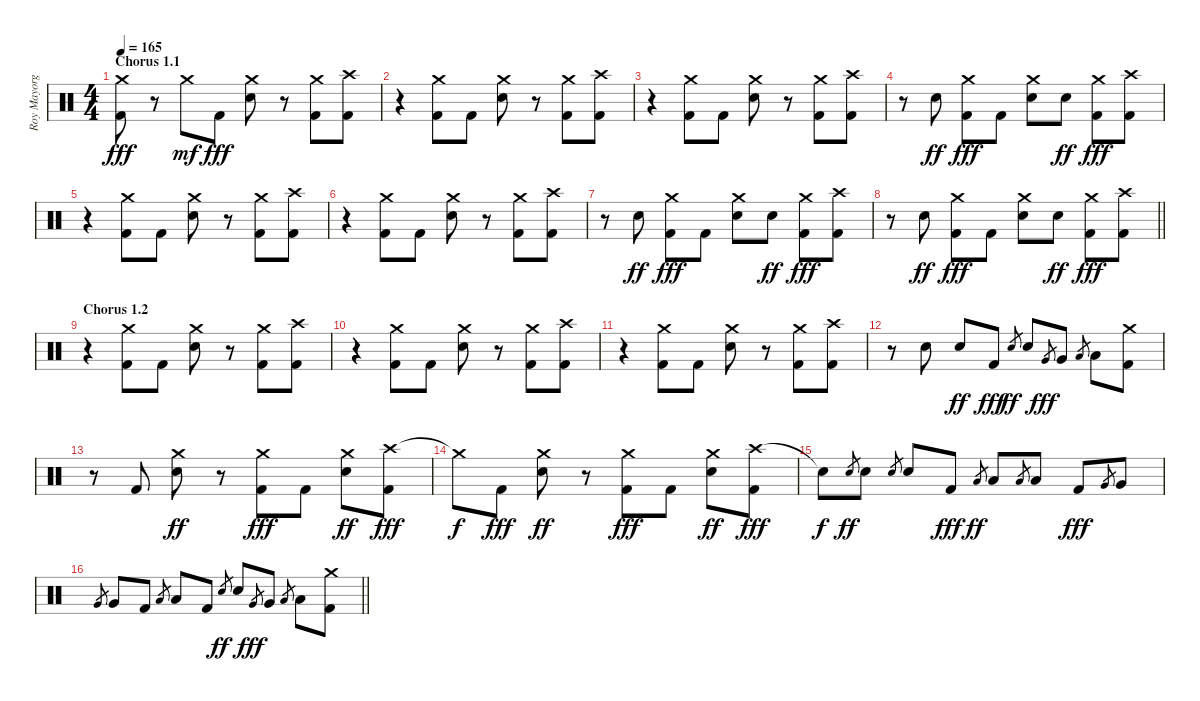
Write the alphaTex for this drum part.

\track ("Roy Mayorga" "Roy Mayorg") {instrument percussion}
\staff {score}
\articulation defaults
\ts (4 4)
\section ("" "Chorus 1.1")
\tempo 165
\clef neutral
\ks c
("Crash medium (hit)" "Kick (hit) 2").8{dy fff} r.8 "Crash medium (hit)".8{dy mf} "Kick (hit) 2".8{dy fff} ("Crash medium (hit)" "Electric Snare (hit)").8 r.8 ("Crash medium (hit)" "Kick (hit) 2").8 ("Crash high (hit)" "Kick (hit) 2").8 |
r.4 ("Crash medium (hit)" "Kick (hit) 2").8 "Kick (hit) 2".8 ("Crash medium (hit)" "Electric Snare (hit)").8 r.8 ("Crash medium (hit)" "Kick (hit) 2").8 ("Crash high (hit)" "Kick (hit) 2").8 |
r.4 ("Crash medium (hit)" "Kick (hit) 2").8 "Kick (hit) 2".8 ("Crash medium (hit)" "Electric Snare (hit)").8 r.8 ("Crash medium (hit)" "Kick (hit) 2").8 ("Crash high (hit)" "Kick (hit) 2").8 |
r.8 "Electric Snare (hit)".8{dy ff} ("Crash medium (hit)" "Kick (hit) 2").8{dy fff} "Kick (hit) 2".8 ("Crash medium (hit)" "Electric Snare (hit)").8 "Electric Snare (hit)".8{dy ff} ("Crash medium (hit)" "Kick (hit) 2").8{dy fff} ("Crash high (hit)" "Kick (hit) 2").8 |
r.4 ("Crash medium (hit)" "Kick (hit) 2").8 "Kick (hit) 2".8 ("Crash medium (hit)" "Electric Snare (hit)").8 r.8 ("Crash medium (hit)" "Kick (hit) 2").8 ("Crash high (hit)" "Kick (hit) 2").8 |
r.4 ("Crash medium (hit)" "Kick (hit) 2").8 "Kick (hit) 2".8 ("Crash medium (hit)" "Electric Snare (hit)").8 r.8 ("Crash medium (hit)" "Kick (hit) 2").8 ("Crash high (hit)" "Kick (hit) 2").8 |
r.8 "Electric Snare (hit)".8{dy ff} ("Crash medium (hit)" "Kick (hit) 2").8{dy fff} "Kick (hit) 2".8 ("Crash medium (hit)" "Electric Snare (hit)").8 "Electric Snare (hit)".8{dy ff} ("Crash medium (hit)" "Kick (hit) 2").8{dy fff} ("Crash high (hit)" "Kick (hit) 2").8 |
\barLineRight lightlight
r.8 "Electric Snare (hit)".8{dy ff} ("Crash medium (hit)" "Kick (hit) 2").8{dy fff} "Kick (hit) 2".8 ("Crash medium (hit)" "Electric Snare (hit)").8 "Electric Snare (hit)".8{dy ff} ("Crash medium (hit)" "Kick (hit) 2").8{dy fff} ("Crash high (hit)" "Kick (hit) 2").8 |
\section ("" "Chorus 1.2")
r.4 ("Crash medium (hit)" "Kick (hit) 2").8 "Kick (hit) 2".8 ("Crash medium (hit)" "Electric Snare (hit)").8 r.8 ("Crash medium (hit)" "Kick (hit) 2").8 ("Crash high (hit)" "Kick (hit) 2").8 |
r.4 ("Crash medium (hit)" "Kick (hit) 2").8 "Kick (hit) 2".8 ("Crash medium (hit)" "Electric Snare (hit)").8 r.8 ("Crash medium (hit)" "Kick (hit) 2").8 ("Crash high (hit)" "Kick (hit) 2").8 |
r.4 ("Crash medium (hit)" "Kick (hit) 2").8 "Kick (hit) 2".8 ("Crash medium (hit)" "Electric Snare (hit)").8 r.8 ("Crash medium (hit)" "Kick (hit) 2").8 ("Crash high (hit)" "Kick (hit) 2").8 |
r.8 "Electric Snare (hit)".8 "Electric Snare (hit)".8{dy ff} "Kick (hit) 2".8{dy fff} "Electric Snare (hit)".8{gr dy ff} "Electric Snare (hit)".8 "Very Low Tom (hit)".8{gr dy fff} "Very Low Tom (hit)".8 "Low Floor Tom (hit)".8{gr} "Low Floor Tom (hit)".8 ("Crash medium (hit)" "Kick (hit) 2").8 |
r.8 "Kick (hit) 2".8 ("Crash medium (hit)" "Electric Snare (hit)").8{dy ff} r.8 ("Crash medium (hit)" "Kick (hit) 2").8{dy fff} "Kick (hit) 2".8 ("Crash medium (hit)" "Electric Snare (hit)").8{dy ff} ("Crash high (hit)" "Kick (hit) 2").8{dy fff} |
"Crash medium (hit)"{t}.8{dy f} "Kick (hit) 2".8{dy fff} ("Crash medium (hit)" "Electric Snare (hit)").8{dy ff} r.8 ("Crash medium (hit)" "Kick (hit) 2").8{dy fff} "Kick (hit) 2".8 ("Crash medium (hit)" "Electric Snare (hit)").8{dy ff} ("Crash high (hit)" "Kick (hit) 2").8{dy fff} |
"Snare (hit)"{t}.8{dy f} "Electric Snare (hit)".8{gr dy ff} "Electric Snare (hit)".8 "Electric Snare (hit)".8{gr} "Electric Snare (hit)".8 "Kick (hit) 2".8{dy fff} "Low Tom (hit)".8{gr dy ff} "Low Tom (hit)".8 "Low Tom (hit)".8{gr} "Low Tom (hit)".8 "Kick (hit) 2".8{dy fff} "Very Low Tom (hit)".8{gr} "Very Low Tom (hit)".8 |
\barLineRight lightlight "Very Low Tom (hit)".8{gr} "Very Low Tom (hit)".8 "Kick (hit) 2".8 "Low Floor Tom (hit)".8{gr} "Low Floor Tom (hit)".8 "Kick (hit) 2".8 "Electric Snare (hit)".8{gr dy ff} "Electric Snare (hit)".8 "Very Low Tom (hit)".8{gr dy fff} "Very Low Tom (hit)".8 "Low Floor Tom (hit)".8{gr} "Low Floor Tom (hit)".8
("Crash medium (hit)" "Kick (hit) 2").8
